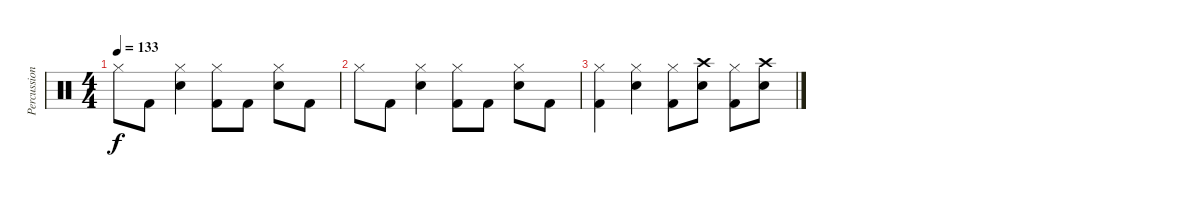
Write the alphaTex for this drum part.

\track ("Percussion" "Percussion") {instrument percussion}
\staff {score}
\articulation defaults
\ts (4 4)
\tempo 133
\clef neutral
\ks c "Hi-Hat (closed)".8{dy f} "Kick (hit) 2".8
("Hi-Hat (closed)" "Electric Snare (hit)").4 ("Hi-Hat (closed)" "Kick (hit) 2").8 "Kick (hit) 2".8 ("Hi-Hat (closed)" "Electric Snare (hit)").8 "Kick (hit) 2".8 |
"Hi-Hat (closed)".8 "Kick (hit) 2".8 ("Hi-Hat (closed)" "Electric Snare (hit)").4 ("Hi-Hat (closed)" "Kick (hit) 2").8 "Kick (hit) 2".8 ("Hi-Hat (closed)" "Electric Snare (hit)").8 "Kick (hit) 2".8 |
("Hi-Hat (closed)" "Kick (hit) 2").4 ("Hi-Hat (closed)" "Electric Snare (hit)").4 ("Hi-Hat (closed)" "Kick (hit) 2").8 ("Crash high (hit)" "Electric Snare (hit)").8 ("Hi-Hat (closed)" "Kick (hit) 2").8 ("Crash high (hit)" "Electric Snare (hit)").8
